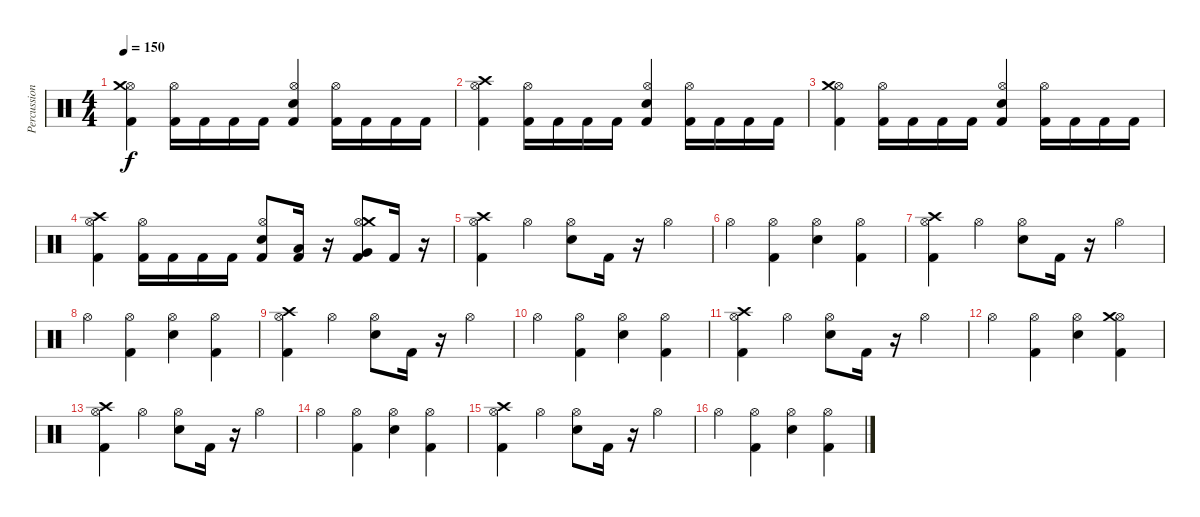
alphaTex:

\track ("Percussion" "Percussion") {instrument percussion}
\staff {score}
\articulation defaults
\ts (4 4)
\tempo 150
\clef neutral
\ks c
("Kick (hit) 2" "Hi-Hat (open)" "Crash medium (hit)").4{dy f} ("Kick (hit) 2" "Hi-Hat (open)").16 "Kick (hit) 2".16 "Kick (hit) 2".16 "Kick (hit) 2".16 ("Kick (hit) 2" "Electric Snare (hit)" "Hi-Hat (open)").4 ("Kick (hit) 2" "Hi-Hat (open)").16 "Kick (hit) 2".16 "Kick (hit) 2".16 "Kick (hit) 2".16 |
("Kick (hit) 2" "Hi-Hat (open)" "Crash high (hit)").4 ("Kick (hit) 2" "Hi-Hat (open)").16 "Kick (hit) 2".16 "Kick (hit) 2".16 "Kick (hit) 2".16 ("Kick (hit) 2" "Electric Snare (hit)" "Hi-Hat (open)").4 ("Kick (hit) 2" "Hi-Hat (open)").16 "Kick (hit) 2".16 "Kick (hit) 2".16 "Kick (hit) 2".16 |
("Kick (hit) 2" "Hi-Hat (open)" "Crash medium (hit)").4 ("Kick (hit) 2" "Hi-Hat (open)").16 "Kick (hit) 2".16 "Kick (hit) 2".16 "Kick (hit) 2".16 ("Kick (hit) 2" "Electric Snare (hit)" "Hi-Hat (open)").4 ("Kick (hit) 2" "Hi-Hat (open)").16 "Kick (hit) 2".16 "Kick (hit) 2".16 "Kick (hit) 2".16 |
("Kick (hit) 2" "Hi-Hat (open)" "Crash high (hit)").4 ("Kick (hit) 2" "Hi-Hat (open)").16 "Kick (hit) 2".16 "Kick (hit) 2".16 "Kick (hit) 2".16 ("Kick (hit) 2" "Electric Snare (hit)" "Hi-Hat (open)").8 ("Kick (hit) 2" "Low Tom (hit)").16 r.16 ("Kick (hit) 2" "Very Low Tom (hit)" "Hi-Hat (open)" "Crash medium (hit)").8 "Kick (hit) 2".16 r.16 |
("Kick (hit) 2" "Hi-Hat (open)" "Crash high (hit)").4 "Hi-Hat (open)".4 ("Electric Snare (hit)" "Hi-Hat (open)").8 "Kick (hit) 2".16 r.16 "Hi-Hat (open)".4 |
"Hi-Hat (open)".4 ("Kick (hit) 2" "Hi-Hat (open)").4 ("Electric Snare (hit)" "Hi-Hat (open)").4 ("Kick (hit) 2" "Hi-Hat (open)").4 |
("Kick (hit) 2" "Hi-Hat (open)" "Crash high (hit)").4 "Hi-Hat (open)".4 ("Electric Snare (hit)" "Hi-Hat (open)").8 "Kick (hit) 2".16 r.16 "Hi-Hat (open)".4 |
"Hi-Hat (open)".4 ("Kick (hit) 2" "Hi-Hat (open)").4 ("Electric Snare (hit)" "Hi-Hat (open)").4 ("Kick (hit) 2" "Hi-Hat (open)").4 |
("Kick (hit) 2" "Hi-Hat (open)" "Crash high (hit)").4 "Hi-Hat (open)".4 ("Electric Snare (hit)" "Hi-Hat (open)").8 "Kick (hit) 2".16 r.16 "Hi-Hat (open)".4 |
"Hi-Hat (open)".4 ("Kick (hit) 2" "Hi-Hat (open)").4 ("Electric Snare (hit)" "Hi-Hat (open)").4 ("Kick (hit) 2" "Hi-Hat (open)").4 |
("Kick (hit) 2" "Hi-Hat (open)" "Crash high (hit)").4 "Hi-Hat (open)".4 ("Electric Snare (hit)" "Hi-Hat (open)").8 "Kick (hit) 2".16 r.16 "Hi-Hat (open)".4 |
"Hi-Hat (open)".4 ("Kick (hit) 2" "Hi-Hat (open)").4 ("Electric Snare (hit)" "Hi-Hat (open)").4 ("Kick (hit) 2" "Hi-Hat (open)" "Crash medium (hit)").4 |
("Kick (hit) 2" "Hi-Hat (open)" "Crash high (hit)").4 "Hi-Hat (open)".4 ("Electric Snare (hit)" "Hi-Hat (open)").8 "Kick (hit) 2".16 r.16 "Hi-Hat (open)".4 |
"Hi-Hat (open)".4 ("Kick (hit) 2" "Hi-Hat (open)").4 ("Electric Snare (hit)" "Hi-Hat (open)").4 ("Kick (hit) 2" "Hi-Hat (open)").4 |
("Kick (hit) 2" "Hi-Hat (open)" "Crash high (hit)").4 "Hi-Hat (open)".4 ("Electric Snare (hit)" "Hi-Hat (open)").8 "Kick (hit) 2".16 r.16 "Hi-Hat (open)".4 |
"Hi-Hat (open)".4 ("Kick (hit) 2" "Hi-Hat (open)").4 ("Electric Snare (hit)" "Hi-Hat (open)").4 ("Kick (hit) 2" "Hi-Hat (open)").4
